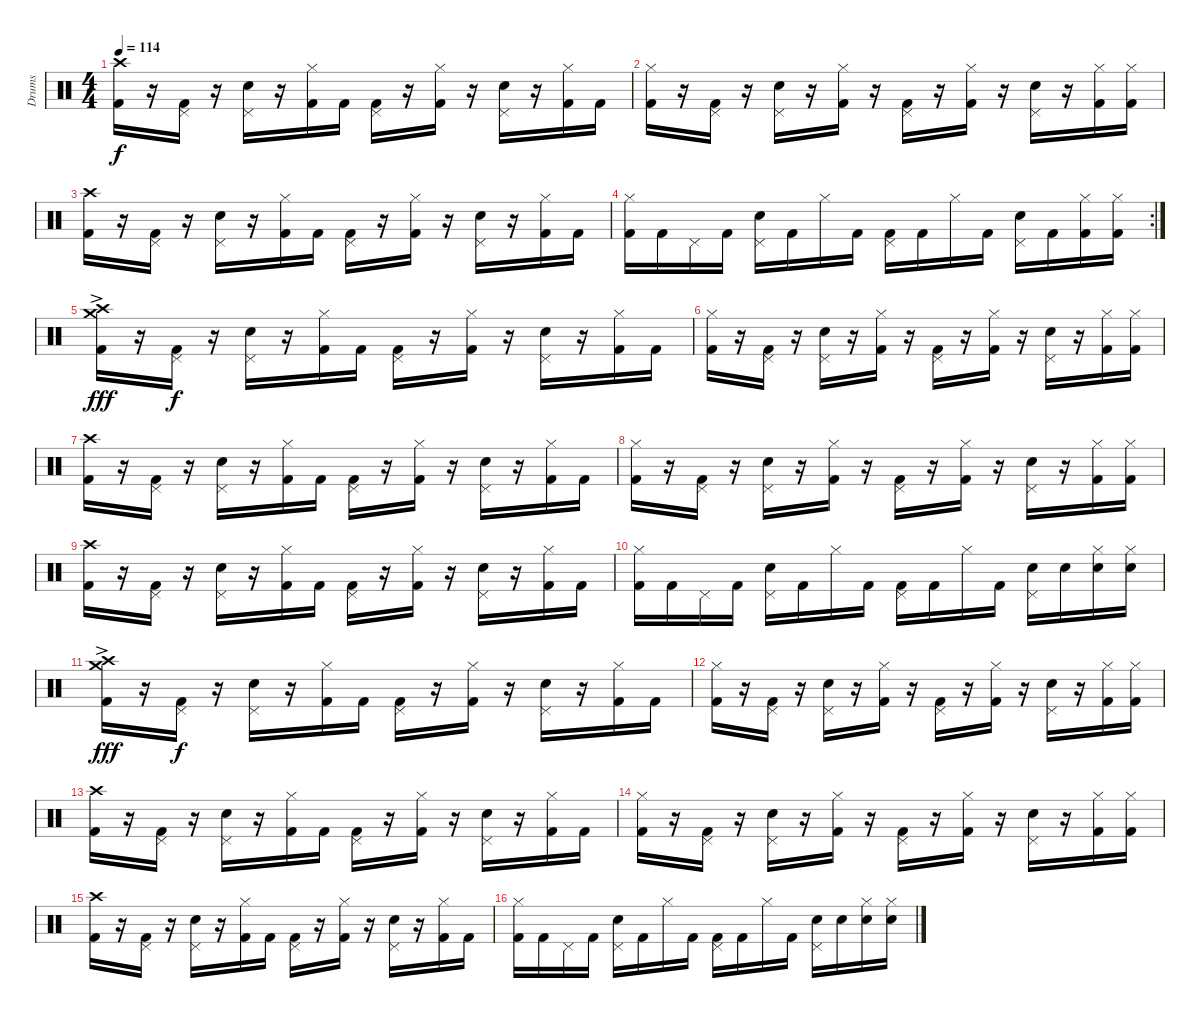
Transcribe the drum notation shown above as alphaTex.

\track ("Drums" "Drums") {instrument percussion}
\staff {score}
\articulation defaults
\ts (4 4)
\tempo 114
\clef neutral
\ks c
("Crash high (hit)" "Kick (hit) 2").16{dy f} r.16 ("Pedal Hi-Hat (hit)" "Kick (hit) 2").16 r.16 ("Pedal Hi-Hat (hit)" "Electric Snare (hit)").16 r.16 ("Hi-Hat (closed)" "Kick (hit) 2").16 "Kick (hit) 2".16 ("Pedal Hi-Hat (hit)" "Kick (hit) 2").16 r.16 ("Hi-Hat (closed)" "Kick (hit) 2").16 r.16 ("Pedal Hi-Hat (hit)" "Electric Snare (hit)").16 r.16 ("Hi-Hat (closed)" "Kick (hit) 2").16 "Kick (hit) 2".16 |
("Hi-Hat (closed)" "Kick (hit) 2").16 r.16 ("Pedal Hi-Hat (hit)" "Kick (hit) 2").16 r.16 ("Pedal Hi-Hat (hit)" "Electric Snare (hit)").16 r.16 ("Hi-Hat (closed)" "Kick (hit) 2").16 r.16 ("Pedal Hi-Hat (hit)" "Kick (hit) 2").16 r.16 ("Hi-Hat (closed)" "Kick (hit) 2").16 r.16 ("Pedal Hi-Hat (hit)" "Electric Snare (hit)").16 r.16 ("Hi-Hat (closed)" "Kick (hit) 2").16 ("Hi-Hat (closed)" "Kick (hit) 2").16 |
("Crash high (hit)" "Kick (hit) 2").16 r.16 ("Pedal Hi-Hat (hit)" "Kick (hit) 2").16 r.16 ("Pedal Hi-Hat (hit)" "Electric Snare (hit)").16 r.16 ("Hi-Hat (closed)" "Kick (hit) 2").16 "Kick (hit) 2".16 ("Pedal Hi-Hat (hit)" "Kick (hit) 2").16 r.16 ("Hi-Hat (closed)" "Kick (hit) 2").16 r.16 ("Pedal Hi-Hat (hit)" "Electric Snare (hit)").16 r.16 ("Hi-Hat (closed)" "Kick (hit) 2").16 "Kick (hit) 2".16 |
\rc 2
("Hi-Hat (closed)" "Kick (hit) 2").16 "Kick (hit) 2".16 "Pedal Hi-Hat (hit)".16 "Kick (hit) 2".16 ("Pedal Hi-Hat (hit)" "Electric Snare (hit)").16 "Kick (hit) 2".16 "Hi-Hat (closed)".16 "Kick (hit) 2".16 ("Pedal Hi-Hat (hit)" "Kick (hit) 2").16 "Kick (hit) 2".16 "Hi-Hat (closed)".16 "Kick (hit) 2".16 ("Pedal Hi-Hat (hit)" "Electric Snare (hit)").16 "Kick (hit) 2".16 ("Hi-Hat (closed)" "Kick (hit) 2").16 ("Hi-Hat (closed)" "Kick (hit) 2").16 |
("Crash high (hit)"{ac} "Crash medium (hit)"{ac} "Kick (hit) 2").16{dy fff} r.16 ("Pedal Hi-Hat (hit)" "Kick (hit) 2").16{dy f} r.16 ("Pedal Hi-Hat (hit)" "Electric Snare (hit)").16 r.16 ("Hi-Hat (closed)" "Kick (hit) 2").16 "Kick (hit) 2".16 ("Pedal Hi-Hat (hit)" "Kick (hit) 2").16 r.16 ("Hi-Hat (closed)" "Kick (hit) 2").16 r.16 ("Pedal Hi-Hat (hit)" "Electric Snare (hit)").16 r.16 ("Hi-Hat (closed)" "Kick (hit) 2").16 "Kick (hit) 2".16 |
("Hi-Hat (closed)" "Kick (hit) 2").16 r.16 ("Pedal Hi-Hat (hit)" "Kick (hit) 2").16 r.16 ("Pedal Hi-Hat (hit)" "Electric Snare (hit)").16 r.16 ("Hi-Hat (closed)" "Kick (hit) 2").16 r.16 ("Pedal Hi-Hat (hit)" "Kick (hit) 2").16 r.16 ("Hi-Hat (closed)" "Kick (hit) 2").16 r.16 ("Pedal Hi-Hat (hit)" "Electric Snare (hit)").16 r.16 ("Hi-Hat (closed)" "Kick (hit) 2").16 ("Hi-Hat (closed)" "Kick (hit) 2").16 |
("Crash high (hit)" "Kick (hit) 2").16 r.16 ("Pedal Hi-Hat (hit)" "Kick (hit) 2").16 r.16 ("Pedal Hi-Hat (hit)" "Electric Snare (hit)").16 r.16 ("Hi-Hat (closed)" "Kick (hit) 2").16 "Kick (hit) 2".16 ("Pedal Hi-Hat (hit)" "Kick (hit) 2").16 r.16 ("Hi-Hat (closed)" "Kick (hit) 2").16 r.16 ("Pedal Hi-Hat (hit)" "Electric Snare (hit)").16 r.16 ("Hi-Hat (closed)" "Kick (hit) 2").16 "Kick (hit) 2".16 |
("Hi-Hat (closed)" "Kick (hit) 2").16 r.16 ("Pedal Hi-Hat (hit)" "Kick (hit) 2").16 r.16 ("Pedal Hi-Hat (hit)" "Electric Snare (hit)").16 r.16 ("Hi-Hat (closed)" "Kick (hit) 2").16 r.16 ("Pedal Hi-Hat (hit)" "Kick (hit) 2").16 r.16 ("Hi-Hat (closed)" "Kick (hit) 2").16 r.16 ("Pedal Hi-Hat (hit)" "Electric Snare (hit)").16 r.16 ("Hi-Hat (closed)" "Kick (hit) 2").16 ("Hi-Hat (closed)" "Kick (hit) 2").16 |
("Crash high (hit)" "Kick (hit) 2").16 r.16 ("Pedal Hi-Hat (hit)" "Kick (hit) 2").16 r.16 ("Pedal Hi-Hat (hit)" "Electric Snare (hit)").16 r.16 ("Hi-Hat (closed)" "Kick (hit) 2").16 "Kick (hit) 2".16 ("Pedal Hi-Hat (hit)" "Kick (hit) 2").16 r.16 ("Hi-Hat (closed)" "Kick (hit) 2").16 r.16 ("Pedal Hi-Hat (hit)" "Electric Snare (hit)").16 r.16 ("Hi-Hat (closed)" "Kick (hit) 2").16 "Kick (hit) 2".16 |
("Hi-Hat (closed)" "Kick (hit) 2").16 "Kick (hit) 2".16 "Pedal Hi-Hat (hit)".16 "Kick (hit) 2".16 ("Pedal Hi-Hat (hit)" "Electric Snare (hit)").16 "Kick (hit) 2".16 "Hi-Hat (closed)".16 "Kick (hit) 2".16 ("Pedal Hi-Hat (hit)" "Kick (hit) 2").16 "Kick (hit) 2".16 "Hi-Hat (closed)".16 "Kick (hit) 2".16 ("Pedal Hi-Hat (hit)" "Electric Snare (hit)").16 "Electric Snare (hit)".16 ("Hi-Hat (closed)" "Electric Snare (hit)").16 ("Hi-Hat (closed)" "Electric Snare (hit)").16 |
("Crash high (hit)"{ac} "Crash medium (hit)"{ac} "Kick (hit) 2").16{dy fff} r.16 ("Pedal Hi-Hat (hit)" "Kick (hit) 2").16{dy f} r.16 ("Pedal Hi-Hat (hit)" "Electric Snare (hit)").16 r.16 ("Hi-Hat (closed)" "Kick (hit) 2").16 "Kick (hit) 2".16 ("Pedal Hi-Hat (hit)" "Kick (hit) 2").16 r.16 ("Hi-Hat (closed)" "Kick (hit) 2").16 r.16 ("Pedal Hi-Hat (hit)" "Electric Snare (hit)").16 r.16 ("Hi-Hat (closed)" "Kick (hit) 2").16 "Kick (hit) 2".16 |
("Hi-Hat (closed)" "Kick (hit) 2").16 r.16 ("Pedal Hi-Hat (hit)" "Kick (hit) 2").16 r.16 ("Pedal Hi-Hat (hit)" "Electric Snare (hit)").16 r.16 ("Hi-Hat (closed)" "Kick (hit) 2").16 r.16 ("Pedal Hi-Hat (hit)" "Kick (hit) 2").16 r.16 ("Hi-Hat (closed)" "Kick (hit) 2").16 r.16 ("Pedal Hi-Hat (hit)" "Electric Snare (hit)").16 r.16 ("Hi-Hat (closed)" "Kick (hit) 2").16 ("Hi-Hat (closed)" "Kick (hit) 2").16 |
("Crash high (hit)" "Kick (hit) 2").16 r.16 ("Pedal Hi-Hat (hit)" "Kick (hit) 2").16 r.16 ("Pedal Hi-Hat (hit)" "Electric Snare (hit)").16 r.16 ("Hi-Hat (closed)" "Kick (hit) 2").16 "Kick (hit) 2".16 ("Pedal Hi-Hat (hit)" "Kick (hit) 2").16 r.16 ("Hi-Hat (closed)" "Kick (hit) 2").16 r.16 ("Pedal Hi-Hat (hit)" "Electric Snare (hit)").16 r.16 ("Hi-Hat (closed)" "Kick (hit) 2").16 "Kick (hit) 2".16 |
("Hi-Hat (closed)" "Kick (hit) 2").16 r.16 ("Pedal Hi-Hat (hit)" "Kick (hit) 2").16 r.16 ("Pedal Hi-Hat (hit)" "Electric Snare (hit)").16 r.16 ("Hi-Hat (closed)" "Kick (hit) 2").16 r.16 ("Pedal Hi-Hat (hit)" "Kick (hit) 2").16 r.16 ("Hi-Hat (closed)" "Kick (hit) 2").16 r.16 ("Pedal Hi-Hat (hit)" "Electric Snare (hit)").16 r.16 ("Hi-Hat (closed)" "Kick (hit) 2").16 ("Hi-Hat (closed)" "Kick (hit) 2").16 |
("Crash high (hit)" "Kick (hit) 2").16 r.16 ("Pedal Hi-Hat (hit)" "Kick (hit) 2").16 r.16 ("Pedal Hi-Hat (hit)" "Electric Snare (hit)").16 r.16 ("Hi-Hat (closed)" "Kick (hit) 2").16 "Kick (hit) 2".16 ("Pedal Hi-Hat (hit)" "Kick (hit) 2").16 r.16 ("Hi-Hat (closed)" "Kick (hit) 2").16 r.16 ("Pedal Hi-Hat (hit)" "Electric Snare (hit)").16 r.16 ("Hi-Hat (closed)" "Kick (hit) 2").16 "Kick (hit) 2".16 |
("Hi-Hat (closed)" "Kick (hit) 2").16 "Kick (hit) 2".16 "Pedal Hi-Hat (hit)".16 "Kick (hit) 2".16 ("Pedal Hi-Hat (hit)" "Electric Snare (hit)").16 "Kick (hit) 2".16 "Hi-Hat (closed)".16 "Kick (hit) 2".16 ("Pedal Hi-Hat (hit)" "Kick (hit) 2").16 "Kick (hit) 2".16 "Hi-Hat (closed)".16 "Kick (hit) 2".16 ("Pedal Hi-Hat (hit)" "Electric Snare (hit)").16 "Electric Snare (hit)".16 ("Hi-Hat (closed)" "Electric Snare (hit)").16 ("Hi-Hat (closed)" "Electric Snare (hit)").16
